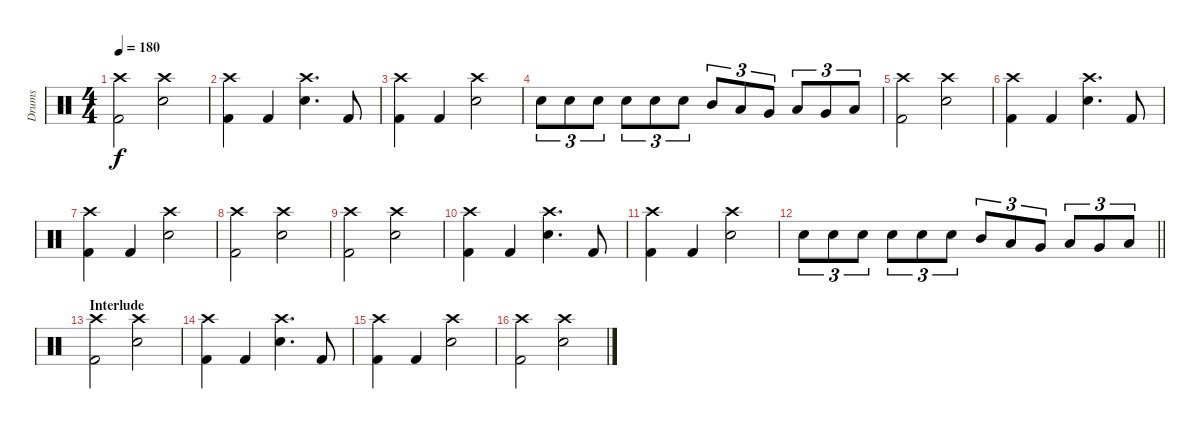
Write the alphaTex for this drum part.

\track ("Drums" "Drums") {instrument percussion}
\staff {score}
\articulation defaults
\ts (4 4)
\tempo 180
\clef neutral
\ks c
("Kick (hit) 2" "Crash high (hit)").2{dy f} ("Crash high (hit)" "Electric Snare (hit)").2 |
("Crash high (hit)" "Kick (hit) 2").4 "Kick (hit) 2".4 ("Crash high (hit)" "Electric Snare (hit)").4{d} "Kick (hit) 2".8 |
("Crash high (hit)" "Kick (hit) 2").4 "Kick (hit) 2".4 ("Crash high (hit)" "Electric Snare (hit)").2 |
"Electric Snare (hit)".8{tu (3 2)} "Electric Snare (hit)".8{tu (3 2)} "Electric Snare (hit)".8{tu (3 2)} "Electric Snare (hit)".8{tu (3 2)} "Electric Snare (hit)".8{tu (3 2)} "Electric Snare (hit)".8{tu (3 2)} "Mid Tom (hit)".8{tu (3 2)} "Low Tom (hit)".8{tu (3 2)} "Very Low Tom (hit)".8{tu (3 2)} "Low Tom (hit)".8{tu (3 2)} "Very Low Tom (hit)".8{tu (3 2)} "Low Floor Tom (hit)".8{tu (3 2)} |
("Kick (hit) 2" "Crash high (hit)").2 ("Crash high (hit)" "Electric Snare (hit)").2 |
("Crash high (hit)" "Kick (hit) 2").4 "Kick (hit) 2".4 ("Crash high (hit)" "Electric Snare (hit)").4{d} "Kick (hit) 2".8 |
("Crash high (hit)" "Kick (hit) 2").4 "Kick (hit) 2".4 ("Crash high (hit)" "Electric Snare (hit)").2 |
("Crash high (hit)" "Kick (hit) 2").2 ("Crash high (hit)" "Electric Snare (hit)").2 |
("Kick (hit) 2" "Crash high (hit)").2 ("Crash high (hit)" "Electric Snare (hit)").2 |
("Crash high (hit)" "Kick (hit) 2").4 "Kick (hit) 2".4 ("Crash high (hit)" "Electric Snare (hit)").4{d} "Kick (hit) 2".8 |
("Crash high (hit)" "Kick (hit) 2").4 "Kick (hit) 2".4 ("Crash high (hit)" "Electric Snare (hit)").2 |
\barLineRight lightlight "Electric Snare (hit)".8{tu (3 2)} "Electric Snare (hit)".8{tu (3 2)} "Electric Snare (hit)".8{tu (3 2)} "Electric Snare (hit)".8{tu (3 2)} "Electric Snare (hit)".8{tu (3 2)} "Electric Snare (hit)".8{tu (3 2)} "Mid Tom (hit)".8{tu (3 2)} "Low Tom (hit)".8{tu (3 2)} "Very Low Tom (hit)".8{tu (3 2)} "Low Tom (hit)".8{tu (3 2)} "Very Low Tom (hit)".8{tu (3 2)} "Low Floor Tom (hit)".8{tu (3 2)}
|
\section ("" "Interlude")
("Kick (hit) 2" "Crash high (hit)").2 ("Crash high (hit)" "Electric Snare (hit)").2 |
("Crash high (hit)" "Kick (hit) 2").4 "Kick (hit) 2".4 ("Crash high (hit)" "Electric Snare (hit)").4{d} "Kick (hit) 2".8 |
("Crash high (hit)" "Kick (hit) 2").4 "Kick (hit) 2".4 ("Crash high (hit)" "Electric Snare (hit)").2 |
("Crash high (hit)" "Kick (hit) 2").2 ("Crash high (hit)" "Electric Snare (hit)").2
